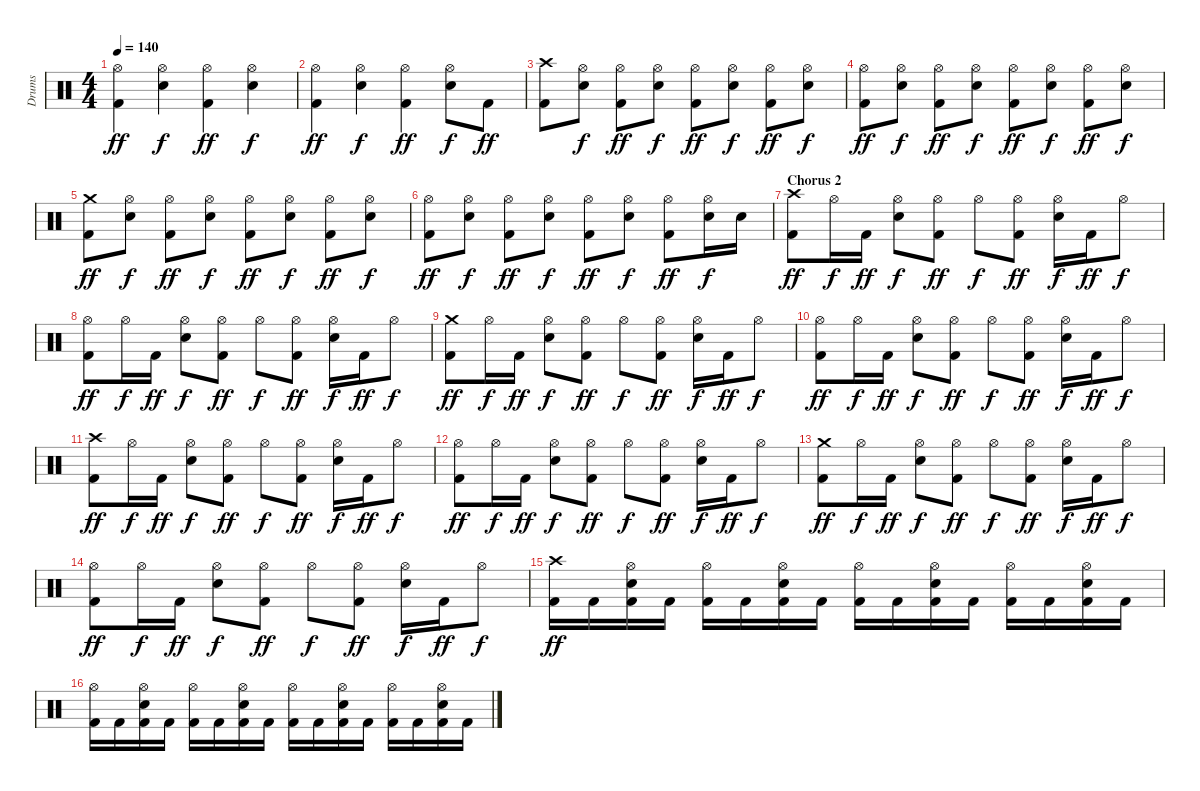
\track ("Drums" "Drums") {instrument percussion}
\staff {score}
\articulation defaults
\ts (4 4)
\tempo 140
\clef neutral
\ks c
("Hi-Hat (open)" "Kick (hit) 2").4{dy ff} ("Hi-Hat (open)" "Electric Snare (hit)").4{dy f} ("Hi-Hat (open)" "Kick (hit) 2").4{dy ff} ("Hi-Hat (open)" "Electric Snare (hit)").4{dy f} |
("Hi-Hat (open)" "Kick (hit) 2").4{dy ff} ("Hi-Hat (open)" "Electric Snare (hit)").4{dy f} ("Hi-Hat (open)" "Kick (hit) 2").4{dy ff} ("Hi-Hat (open)" "Electric Snare (hit)").8{dy f} "Kick (hit) 2".8{dy ff} |
("Crash high (hit)" "Kick (hit) 2").8 ("Hi-Hat (open)" "Electric Snare (hit)").8{dy f} ("Hi-Hat (open)" "Kick (hit) 2").8{dy ff} ("Hi-Hat (open)" "Electric Snare (hit)").8{dy f} ("Hi-Hat (open)" "Kick (hit) 2").8{dy ff} ("Hi-Hat (open)" "Electric Snare (hit)").8{dy f} ("Hi-Hat (open)" "Kick (hit) 2").8{dy ff} ("Hi-Hat (open)" "Electric Snare (hit)").8{dy f} |
("Hi-Hat (open)" "Kick (hit) 2").8{dy ff} ("Hi-Hat (open)" "Electric Snare (hit)").8{dy f} ("Hi-Hat (open)" "Kick (hit) 2").8{dy ff} ("Hi-Hat (open)" "Electric Snare (hit)").8{dy f} ("Hi-Hat (open)" "Kick (hit) 2").8{dy ff} ("Hi-Hat (open)" "Electric Snare (hit)").8{dy f} ("Hi-Hat (open)" "Kick (hit) 2").8{dy ff} ("Hi-Hat (open)" "Electric Snare (hit)").8{dy f} |
("Crash medium (hit)" "Kick (hit) 2").8{dy ff} ("Hi-Hat (open)" "Electric Snare (hit)").8{dy f} ("Hi-Hat (open)" "Kick (hit) 2").8{dy ff} ("Hi-Hat (open)" "Electric Snare (hit)").8{dy f} ("Hi-Hat (open)" "Kick (hit) 2").8{dy ff} ("Hi-Hat (open)" "Electric Snare (hit)").8{dy f} ("Hi-Hat (open)" "Kick (hit) 2").8{dy ff} ("Hi-Hat (open)" "Electric Snare (hit)").8{dy f} |
("Hi-Hat (open)" "Kick (hit) 2").8{dy ff} ("Hi-Hat (open)" "Electric Snare (hit)").8{dy f} ("Hi-Hat (open)" "Kick (hit) 2").8{dy ff} ("Hi-Hat (open)" "Electric Snare (hit)").8{dy f} ("Hi-Hat (open)" "Kick (hit) 2").8{dy ff} ("Hi-Hat (open)" "Electric Snare (hit)").8{dy f} ("Hi-Hat (open)" "Kick (hit) 2").8{dy ff} ("Hi-Hat (open)" "Electric Snare (hit)").16{dy f} "Electric Snare (hit)".16 |
\section ("" "Chorus 2")
("Crash high (hit)" "Kick (hit) 2").8{dy ff} "Hi-Hat (open)".16{dy f} "Kick (hit) 2".16{dy ff} ("Hi-Hat (open)" "Electric Snare (hit)").8{dy f} ("Hi-Hat (open)" "Kick (hit) 2").8{dy ff} "Hi-Hat (open)".8{dy f} ("Hi-Hat (open)" "Kick (hit) 2").8{dy ff} ("Hi-Hat (open)" "Electric Snare (hit)").16{dy f} "Kick (hit) 2".16{dy ff} "Hi-Hat (open)".8{dy f} |
("Hi-Hat (open)" "Kick (hit) 2").8{dy ff} "Hi-Hat (open)".16{dy f} "Kick (hit) 2".16{dy ff} ("Hi-Hat (open)" "Electric Snare (hit)").8{dy f} ("Hi-Hat (open)" "Kick (hit) 2").8{dy ff} "Hi-Hat (open)".8{dy f} ("Hi-Hat (open)" "Kick (hit) 2").8{dy ff} ("Hi-Hat (open)" "Electric Snare (hit)").16{dy f} "Kick (hit) 2".16{dy ff} "Hi-Hat (open)".8{dy f} |
("Crash medium (hit)" "Kick (hit) 2").8{dy ff} "Hi-Hat (open)".16{dy f} "Kick (hit) 2".16{dy ff} ("Hi-Hat (open)" "Electric Snare (hit)").8{dy f} ("Hi-Hat (open)" "Kick (hit) 2").8{dy ff} "Hi-Hat (open)".8{dy f} ("Hi-Hat (open)" "Kick (hit) 2").8{dy ff} ("Hi-Hat (open)" "Electric Snare (hit)").16{dy f} "Kick (hit) 2".16{dy ff} "Hi-Hat (open)".8{dy f} |
("Hi-Hat (open)" "Kick (hit) 2").8{dy ff} "Hi-Hat (open)".16{dy f} "Kick (hit) 2".16{dy ff} ("Hi-Hat (open)" "Electric Snare (hit)").8{dy f} ("Hi-Hat (open)" "Kick (hit) 2").8{dy ff} "Hi-Hat (open)".8{dy f} ("Hi-Hat (open)" "Kick (hit) 2").8{dy ff} ("Hi-Hat (open)" "Electric Snare (hit)").16{dy f} "Kick (hit) 2".16{dy ff} "Hi-Hat (open)".8{dy f} |
("Crash high (hit)" "Kick (hit) 2").8{dy ff} "Hi-Hat (open)".16{dy f} "Kick (hit) 2".16{dy ff} ("Hi-Hat (open)" "Electric Snare (hit)").8{dy f} ("Hi-Hat (open)" "Kick (hit) 2").8{dy ff} "Hi-Hat (open)".8{dy f} ("Hi-Hat (open)" "Kick (hit) 2").8{dy ff} ("Hi-Hat (open)" "Electric Snare (hit)").16{dy f} "Kick (hit) 2".16{dy ff} "Hi-Hat (open)".8{dy f} |
("Hi-Hat (open)" "Kick (hit) 2").8{dy ff} "Hi-Hat (open)".16{dy f} "Kick (hit) 2".16{dy ff} ("Hi-Hat (open)" "Electric Snare (hit)").8{dy f} ("Hi-Hat (open)" "Kick (hit) 2").8{dy ff} "Hi-Hat (open)".8{dy f} ("Hi-Hat (open)" "Kick (hit) 2").8{dy ff} ("Hi-Hat (open)" "Electric Snare (hit)").16{dy f} "Kick (hit) 2".16{dy ff} "Hi-Hat (open)".8{dy f} |
("Crash medium (hit)" "Kick (hit) 2").8{dy ff} "Hi-Hat (open)".16{dy f} "Kick (hit) 2".16{dy ff} ("Hi-Hat (open)" "Electric Snare (hit)").8{dy f} ("Hi-Hat (open)" "Kick (hit) 2").8{dy ff} "Hi-Hat (open)".8{dy f} ("Hi-Hat (open)" "Kick (hit) 2").8{dy ff} ("Hi-Hat (open)" "Electric Snare (hit)").16{dy f} "Kick (hit) 2".16{dy ff} "Hi-Hat (open)".8{dy f} |
("Hi-Hat (open)" "Kick (hit) 2").8{dy ff} "Hi-Hat (open)".16{dy f} "Kick (hit) 2".16{dy ff} ("Hi-Hat (open)" "Electric Snare (hit)").8{dy f} ("Hi-Hat (open)" "Kick (hit) 2").8{dy ff} "Hi-Hat (open)".8{dy f} ("Hi-Hat (open)" "Kick (hit) 2").8{dy ff} ("Hi-Hat (open)" "Electric Snare (hit)").16{dy f} "Kick (hit) 2".16{dy ff} "Hi-Hat (open)".8{dy f} |
("Crash high (hit)" "Kick (hit) 2").16{dy ff} "Kick (hit) 2".16 ("Hi-Hat (open)" "Electric Snare (hit)" "Kick (hit) 2").16 "Kick (hit) 2".16 ("Hi-Hat (open)" "Kick (hit) 2").16 "Kick (hit) 2".16 ("Hi-Hat (open)" "Electric Snare (hit)" "Kick (hit) 2").16 "Kick (hit) 2".16 ("Hi-Hat (open)" "Kick (hit) 2").16 "Kick (hit) 2".16 ("Hi-Hat (open)" "Electric Snare (hit)" "Kick (hit) 2").16 "Kick (hit) 2".16 ("Hi-Hat (open)" "Kick (hit) 2").16 "Kick (hit) 2".16 ("Hi-Hat (open)" "Electric Snare (hit)" "Kick (hit) 2").16 "Kick (hit) 2".16 |
("Hi-Hat (open)" "Kick (hit) 2").16 "Kick (hit) 2".16 ("Hi-Hat (open)" "Electric Snare (hit)" "Kick (hit) 2").16 "Kick (hit) 2".16 ("Hi-Hat (open)" "Kick (hit) 2").16 "Kick (hit) 2".16 ("Hi-Hat (open)" "Electric Snare (hit)" "Kick (hit) 2").16 "Kick (hit) 2".16 ("Hi-Hat (open)" "Kick (hit) 2").16 "Kick (hit) 2".16 ("Hi-Hat (open)" "Electric Snare (hit)" "Kick (hit) 2").16 "Kick (hit) 2".16 ("Hi-Hat (open)" "Kick (hit) 2").16 "Kick (hit) 2".16 ("Hi-Hat (open)" "Electric Snare (hit)" "Kick (hit) 2").16 "Kick (hit) 2".16
